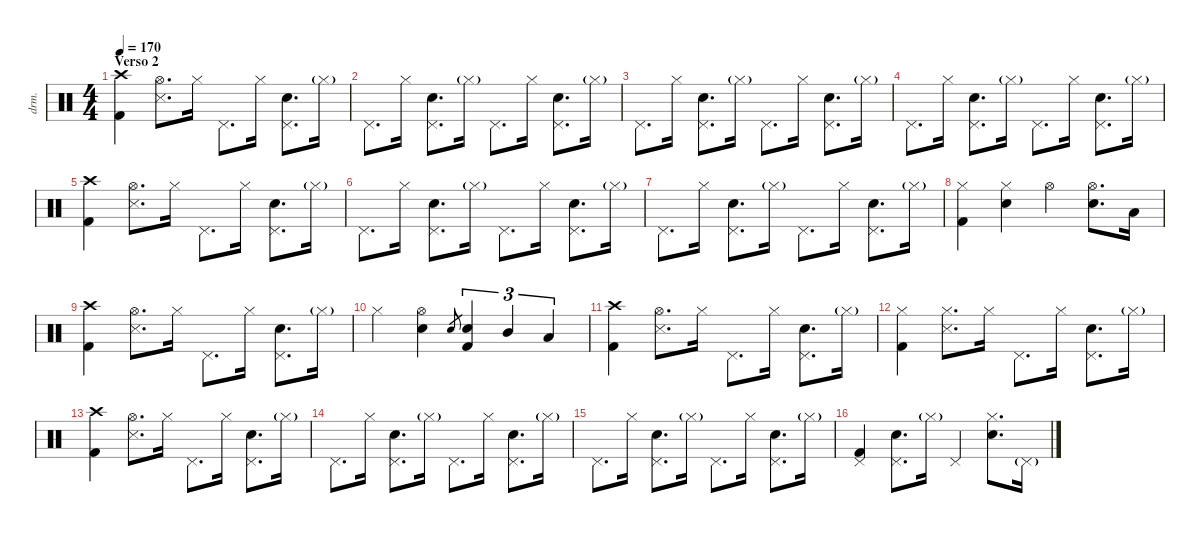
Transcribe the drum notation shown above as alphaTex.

\defaultSystemsLayout 4
\hideDynamics
\bracketExtendMode nobrackets
\otherSystemsTrackNameOrientation horizontal
\track ("Drums" "drm.") {instrument percussion}
\staff {score}
\articulation defaults
\ts (4 4)
\section ("" "Verso 2")
\tempo 170
\clef neutral
\ks c
("Crash high (hit)" "Kick (hit) 2").4{dy f beam Down} ("Hi-Hat (open)" "Snare (side stick) 3").8{d beam Down} "Hi-Hat (closed)".16{beam Down} "Pedal Hi-Hat (hit)".8{d beam Down} "Hi-Hat (closed)".16{beam Down} ("Pedal Hi-Hat (hit)" "Snare (hit) 2").8{d beam Down} "Hi-Hat (closed)"{g}.16{dy mf beam Down} |
"Pedal Hi-Hat (hit)".8{d dy f beam Down} "Hi-Hat (closed)".16{beam Down} ("Pedal Hi-Hat (hit)" "Snare (hit) 2").8{d beam Down} "Hi-Hat (closed)"{g}.16{dy mf beam Down} "Pedal Hi-Hat (hit)".8{d dy f beam Down} "Hi-Hat (closed)".16{beam Down} ("Pedal Hi-Hat (hit)" "Snare (hit) 2").8{d beam Down} "Hi-Hat (closed)"{g}.16{dy mf beam Down} |
"Pedal Hi-Hat (hit)".8{d dy f beam Down} "Hi-Hat (closed)".16{beam Down} ("Pedal Hi-Hat (hit)" "Snare (hit) 2").8{d beam Down} "Hi-Hat (closed)"{g}.16{dy mf beam Down} "Pedal Hi-Hat (hit)".8{d dy f beam Down} "Hi-Hat (closed)".16{beam Down} ("Pedal Hi-Hat (hit)" "Snare (hit) 2").8{d beam Down} "Hi-Hat (closed)"{g}.16{dy mf beam Down} |
"Pedal Hi-Hat (hit)".8{d dy f beam Down} "Hi-Hat (closed)".16{beam Down} ("Pedal Hi-Hat (hit)" "Snare (hit) 2").8{d beam Down} "Hi-Hat (closed)"{g}.16{dy mf beam Down} "Pedal Hi-Hat (hit)".8{d dy f beam Down} "Hi-Hat (closed)".16{beam Down} ("Pedal Hi-Hat (hit)" "Snare (hit) 2").8{d beam Down} "Hi-Hat (closed)"{g}.16{dy mf beam Down} |
("Crash high (hit)" "Kick (hit) 2").4{dy f beam Down} ("Hi-Hat (open)" "Snare (side stick) 3").8{d beam Down} "Hi-Hat (closed)".16{beam Down} "Pedal Hi-Hat (hit)".8{d beam Down} "Hi-Hat (closed)".16{beam Down} ("Pedal Hi-Hat (hit)" "Snare (hit) 2").8{d beam Down} "Hi-Hat (closed)"{g}.16{dy mf beam Down} |
"Pedal Hi-Hat (hit)".8{d dy f beam Down} "Hi-Hat (closed)".16{beam Down} ("Pedal Hi-Hat (hit)" "Snare (hit) 2").8{d beam Down} "Hi-Hat (closed)"{g}.16{dy mf beam Down} "Pedal Hi-Hat (hit)".8{d dy f beam Down} "Hi-Hat (closed)".16{beam Down} ("Pedal Hi-Hat (hit)" "Snare (hit) 2").8{d beam Down} "Hi-Hat (closed)"{g}.16{dy mf beam Down} |
"Pedal Hi-Hat (hit)".8{d dy f beam Down} "Hi-Hat (closed)".16{beam Down} ("Pedal Hi-Hat (hit)" "Snare (hit) 2").8{d beam Down} "Hi-Hat (closed)"{g}.16{dy mf beam Down} "Pedal Hi-Hat (hit)".8{d dy f beam Down} "Hi-Hat (closed)".16{beam Down} ("Pedal Hi-Hat (hit)" "Snare (hit) 2").8{d beam Down} "Hi-Hat (closed)"{g}.16{dy mf beam Down} |
("Hi-Hat (closed)" "Kick (hit) 2").4{dy f beam Down} ("Hi-Hat (closed)" "Snare (hit) 2").4{beam Down} "Hi-Hat (open)".4{beam Down} ("Hi-Hat (open)" "Snare (hit) 2").8{d beam Down} "Low Tom (hit)".16{beam Down} |
("Crash high (hit)" "Kick (hit) 2").4{beam Down} ("Hi-Hat (open)" "Snare (side stick) 3").8{d beam Down} "Hi-Hat (closed)".16{beam Down} "Pedal Hi-Hat (hit)".8{d beam Down} "Hi-Hat (closed)".16{beam Down} ("Pedal Hi-Hat (hit)" "Snare (hit) 2").8{d beam Down} "Hi-Hat (closed)"{g}.16{dy mf beam Down} |
"Hi-Hat (closed)".4{dy f beam Down} ("Hi-Hat (open)" "Snare (hit) 2").4{beam Down} "Snare (hit) 2".8{gr dy mf beam Up} ("Snare (hit) 2" "Kick (hit) 2").4{tu (3 2) dy f beam Up} "Mid Tom (hit)".4{tu (3 2) beam Up} "Low Tom (hit)".4{tu (3 2) beam Up} |
("Crash high (hit)" "Kick (hit) 2").4{beam Down} ("Hi-Hat (open)" "Snare (side stick) 3").8{d beam Down} "Hi-Hat (closed)".16{beam Down} "Pedal Hi-Hat (hit)".8{d beam Down} "Hi-Hat (closed)".16{beam Down} ("Pedal Hi-Hat (hit)" "Snare (hit) 2").8{d beam Down} "Hi-Hat (closed)"{g}.16{dy mf beam Down} |
("Hi-Hat (closed)" "Kick (hit) 2").4{dy f beam Down} ("Hi-Hat (closed)" "Snare (side stick) 3").8{d beam Down} "Hi-Hat (closed)".16{beam Down} "Pedal Hi-Hat (hit)".8{d beam Down} "Hi-Hat (closed)".16{beam Down} ("Pedal Hi-Hat (hit)" "Snare (hit) 2").8{d beam Down} "Hi-Hat (closed)"{g}.16{dy mf beam Down} |
("Crash high (hit)" "Kick (hit) 2").4{dy f beam Down} ("Hi-Hat (open)" "Snare (side stick) 3").8{d beam Down} "Hi-Hat (closed)".16{beam Down} "Pedal Hi-Hat (hit)".8{d beam Down} "Hi-Hat (closed)".16{beam Down} ("Pedal Hi-Hat (hit)" "Snare (hit) 2").8{d beam Down} "Hi-Hat (closed)"{g}.16{dy mf beam Down} |
"Pedal Hi-Hat (hit)".8{d dy f beam Down} "Hi-Hat (closed)".16{beam Down} ("Pedal Hi-Hat (hit)" "Snare (hit) 2").8{d beam Down} "Hi-Hat (closed)"{g}.16{dy mf beam Down} "Pedal Hi-Hat (hit)".8{d dy f beam Down} "Hi-Hat (closed)".16{beam Down} ("Pedal Hi-Hat (hit)" "Snare (hit) 2").8{d beam Down} "Hi-Hat (closed)"{g}.16{dy mf beam Down} |
"Pedal Hi-Hat (hit)".8{d dy f beam Down} "Hi-Hat (closed)".16{beam Down} ("Pedal Hi-Hat (hit)" "Snare (hit) 2").8{d beam Down} "Hi-Hat (closed)"{g}.16{dy mf beam Down} "Pedal Hi-Hat (hit)".8{d dy f beam Down} "Hi-Hat (closed)".16{beam Down} ("Pedal Hi-Hat (hit)" "Snare (hit) 2").8{d beam Down} "Hi-Hat (closed)"{g}.16{dy mf beam Down} |
("Pedal Hi-Hat (hit)" "Kick (hit) 2").4{dy f beam Up} ("Pedal Hi-Hat (hit)" "Snare (hit) 2").8{d beam Down} "Hi-Hat (closed)"{g}.16{dy mf beam Down} "Pedal Hi-Hat (hit)".4{dy f beam Up} ("Hi-Hat (closed)" "Snare (hit) 2").8{d beam Down} "Pedal Hi-Hat (hit)"{g}.16{dy mf beam Down}
